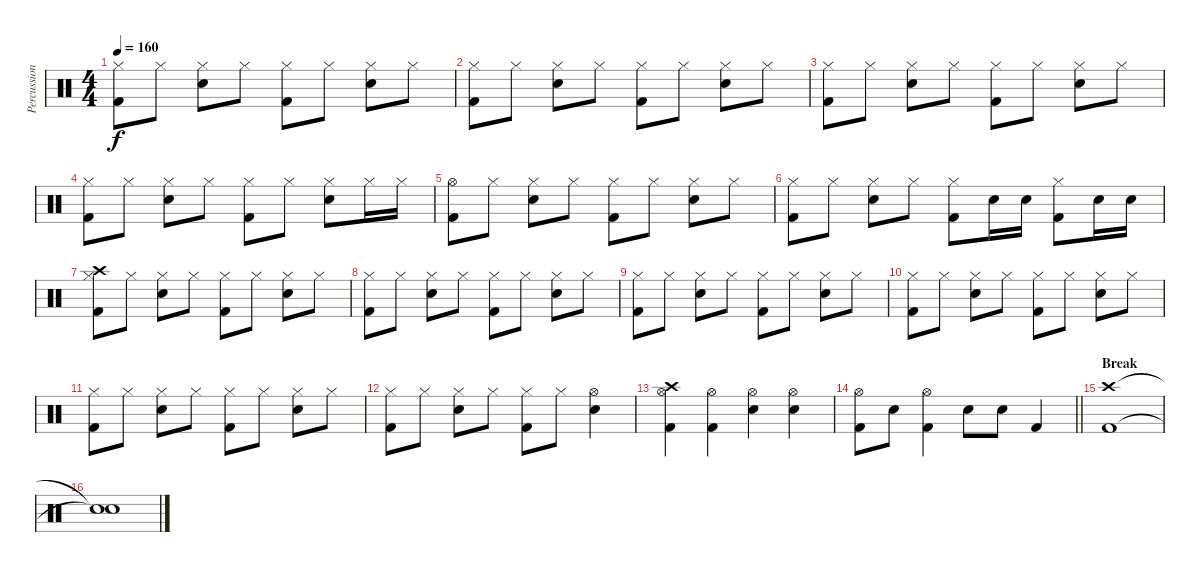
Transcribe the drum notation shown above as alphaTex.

\track ("Percussion" "Percussion") {instrument percussion}
\staff {score}
\articulation defaults
\ts (4 4)
\tempo 160
\clef neutral
\ks c
("Hi-Hat (closed)" "Kick (hit) 2").8{dy f} "Hi-Hat (closed)".8 ("Hi-Hat (closed)" "Snare (hit) 2").8 "Hi-Hat (closed)".8 ("Hi-Hat (closed)" "Kick (hit) 2").8 "Hi-Hat (closed)".8 ("Hi-Hat (closed)" "Snare (hit) 2").8 "Hi-Hat (closed)".8 |
("Hi-Hat (closed)" "Kick (hit) 2").8 "Hi-Hat (closed)".8 ("Hi-Hat (closed)" "Snare (hit) 2").8 "Hi-Hat (closed)".8 ("Hi-Hat (closed)" "Kick (hit) 2").8 "Hi-Hat (closed)".8 ("Hi-Hat (closed)" "Snare (hit) 2").8 "Hi-Hat (closed)".8 |
("Hi-Hat (closed)" "Kick (hit) 2").8 "Hi-Hat (closed)".8 ("Hi-Hat (closed)" "Snare (hit) 2").8 "Hi-Hat (closed)".8 ("Hi-Hat (closed)" "Kick (hit) 2").8 "Hi-Hat (closed)".8 ("Hi-Hat (closed)" "Snare (hit) 2").8 "Hi-Hat (closed)".8 |
("Hi-Hat (closed)" "Kick (hit) 2").8 "Hi-Hat (closed)".8 ("Hi-Hat (closed)" "Snare (hit) 2").8 "Hi-Hat (closed)".8 ("Hi-Hat (closed)" "Kick (hit) 2").8 "Hi-Hat (closed)".8 ("Hi-Hat (closed)" "Snare (hit) 2").8 "Hi-Hat (closed)".16 "Hi-Hat (closed)".16 |
("Hi-Hat (open)" "Kick (hit) 2").8 "Hi-Hat (closed)".8 ("Hi-Hat (closed)" "Snare (hit) 2").8 "Hi-Hat (closed)".8 ("Hi-Hat (closed)" "Kick (hit) 2").8 "Hi-Hat (closed)".8 ("Hi-Hat (closed)" "Snare (hit) 2").8 "Hi-Hat (closed)".8 |
("Hi-Hat (closed)" "Kick (hit) 2").8 "Hi-Hat (closed)".8 ("Hi-Hat (closed)" "Snare (hit) 2").8 "Hi-Hat (closed)".8 ("Hi-Hat (closed)" "Kick (hit) 2").8 "Snare (hit) 2".16 "Snare (hit) 2".16 ("Hi-Hat (closed)" "Kick (hit) 2").8 "Snare (hit) 2".16 "Snare (hit) 2".16 |
("Hi-Hat (closed)" "Crash high (hit)" "Kick (hit) 2").8 "Hi-Hat (closed)".8 ("Hi-Hat (closed)" "Snare (hit) 2").8 "Hi-Hat (closed)".8 ("Hi-Hat (closed)" "Kick (hit) 2").8 "Hi-Hat (closed)".8 ("Hi-Hat (closed)" "Snare (hit) 2").8 "Hi-Hat (closed)".8 |
("Hi-Hat (closed)" "Kick (hit) 2").8 "Hi-Hat (closed)".8 ("Hi-Hat (closed)" "Snare (hit) 2").8 "Hi-Hat (closed)".8 ("Hi-Hat (closed)" "Kick (hit) 2").8 "Hi-Hat (closed)".8 ("Hi-Hat (closed)" "Snare (hit) 2").8 "Hi-Hat (closed)".8 |
("Hi-Hat (closed)" "Kick (hit) 2").8 "Hi-Hat (closed)".8 ("Hi-Hat (closed)" "Snare (hit) 2").8 "Hi-Hat (closed)".8 ("Hi-Hat (closed)" "Kick (hit) 2").8 "Hi-Hat (closed)".8 ("Hi-Hat (closed)" "Snare (hit) 2").8 "Hi-Hat (closed)".8 |
("Hi-Hat (closed)" "Kick (hit) 2").8 "Hi-Hat (closed)".8 ("Hi-Hat (closed)" "Snare (hit) 2").8 "Hi-Hat (closed)".8 ("Hi-Hat (closed)" "Kick (hit) 2").8 "Hi-Hat (closed)".8 ("Hi-Hat (closed)" "Snare (hit) 2").8 "Hi-Hat (closed)".8 |
("Hi-Hat (closed)" "Kick (hit) 2").8 "Hi-Hat (closed)".8 ("Hi-Hat (closed)" "Snare (hit) 2").8 "Hi-Hat (closed)".8 ("Hi-Hat (closed)" "Kick (hit) 2").8 "Hi-Hat (closed)".8 ("Hi-Hat (closed)" "Snare (hit) 2").8 "Hi-Hat (closed)".8 |
("Hi-Hat (closed)" "Kick (hit) 2").8 "Hi-Hat (closed)".8 ("Hi-Hat (closed)" "Snare (hit) 2").8 "Hi-Hat (closed)".8 ("Hi-Hat (closed)" "Kick (hit) 2").8 "Hi-Hat (closed)".8 ("Hi-Hat (open)" "Snare (hit) 2").4 |
("Hi-Hat (open)" "Crash high (hit)" "Kick (hit) 2").4 ("Hi-Hat (open)" "Kick (hit) 2").4 ("Hi-Hat (open)" "Snare (hit) 2").4 ("Hi-Hat (open)" "Snare (hit) 2").4 |
\barLineRight lightlight
("Hi-Hat (open)" "Kick (hit) 2").8 "Snare (hit) 2".8 ("Hi-Hat (open)" "Kick (hit) 2").4 "Snare (hit) 2".8 "Snare (hit) 2".8 "Kick (hit) 2".4 |
\section ("" "Break")
("Crash high (hit)" "Kick (hit) 2").1 |
("Snare (hit)"{t} "Snare (hit)"{t}).1
